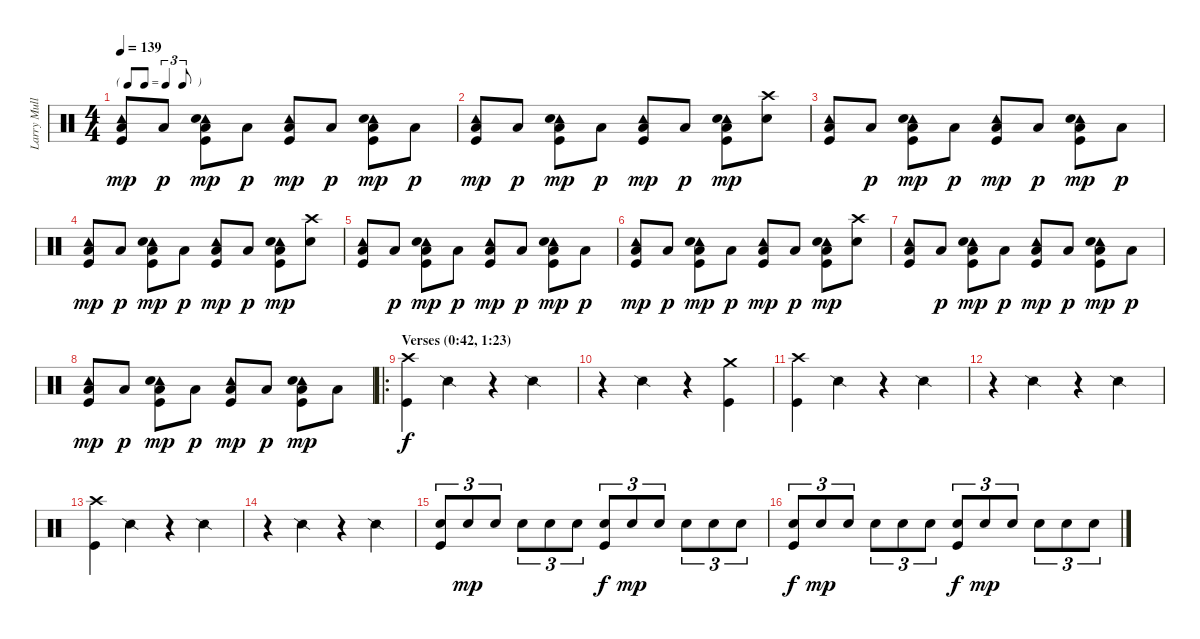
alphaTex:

\track ("Larry Mullen Jr" "Larry Mull") {instrument percussion}
\staff {score}
\articulation defaults
\ts (4 4)
\tf triplet8th
\tempo 139
\clef neutral
\ks c
("Tambourine (hit)" "Low Floor Tom (hit)" "Kick (hit)").8{dy mp} "Low Floor Tom (hit)".8{dy p} ("Tambourine (hit)" "Electric Snare (hit)" "Low Floor Tom (hit)" "Kick (hit)").8{dy mp} "Low Floor Tom (hit)".8{dy p} ("Tambourine (hit)" "Low Floor Tom (hit)" "Kick (hit)").8{dy mp} "Low Floor Tom (hit)".8{dy p} ("Tambourine (hit)" "Electric Snare (hit)" "Low Floor Tom (hit)" "Kick (hit)").8{dy mp} "Low Floor Tom (hit)".8{dy p} |
("Tambourine (hit)" "Low Floor Tom (hit)" "Kick (hit)").8{dy mp} "Low Floor Tom (hit)".8{dy p} ("Tambourine (hit)" "Electric Snare (hit)" "Low Floor Tom (hit)" "Kick (hit)").8{dy mp} "Low Floor Tom (hit)".8{dy p} ("Tambourine (hit)" "Low Floor Tom (hit)" "Kick (hit)").8{dy mp} "Low Floor Tom (hit)".8{dy p} ("Tambourine (hit)" "Electric Snare (hit)" "Low Floor Tom (hit)" "Kick (hit)").8{dy mp} ("Crash high (hit)" "Electric Snare (hit)").8 |
("Tambourine (hit)" "Low Floor Tom (hit)" "Kick (hit)").8 "Low Floor Tom (hit)".8{dy p} ("Tambourine (hit)" "Electric Snare (hit)" "Low Floor Tom (hit)" "Kick (hit)").8{dy mp} "Low Floor Tom (hit)".8{dy p} ("Tambourine (hit)" "Low Floor Tom (hit)" "Kick (hit)").8{dy mp} "Low Floor Tom (hit)".8{dy p} ("Tambourine (hit)" "Electric Snare (hit)" "Low Floor Tom (hit)" "Kick (hit)").8{dy mp} "Low Floor Tom (hit)".8{dy p} |
("Tambourine (hit)" "Low Floor Tom (hit)" "Kick (hit)").8{dy mp} "Low Floor Tom (hit)".8{dy p} ("Tambourine (hit)" "Electric Snare (hit)" "Low Floor Tom (hit)" "Kick (hit)").8{dy mp} "Low Floor Tom (hit)".8{dy p} ("Tambourine (hit)" "Low Floor Tom (hit)" "Kick (hit)").8{dy mp} "Low Floor Tom (hit)".8{dy p} ("Tambourine (hit)" "Electric Snare (hit)" "Low Floor Tom (hit)" "Kick (hit)").8{dy mp} ("Crash high (hit)" "Electric Snare (hit)").8 |
("Tambourine (hit)" "Low Floor Tom (hit)" "Kick (hit)").8 "Low Floor Tom (hit)".8{dy p} ("Tambourine (hit)" "Electric Snare (hit)" "Low Floor Tom (hit)" "Kick (hit)").8{dy mp} "Low Floor Tom (hit)".8{dy p} ("Tambourine (hit)" "Low Floor Tom (hit)" "Kick (hit)").8{dy mp} "Low Floor Tom (hit)".8{dy p} ("Tambourine (hit)" "Electric Snare (hit)" "Low Floor Tom (hit)" "Kick (hit)").8{dy mp} "Low Floor Tom (hit)".8{dy p} |
("Tambourine (hit)" "Low Floor Tom (hit)" "Kick (hit)").8{dy mp} "Low Floor Tom (hit)".8{dy p} ("Tambourine (hit)" "Electric Snare (hit)" "Low Floor Tom (hit)" "Kick (hit)").8{dy mp} "Low Floor Tom (hit)".8{dy p} ("Tambourine (hit)" "Low Floor Tom (hit)" "Kick (hit)").8{dy mp} "Low Floor Tom (hit)".8{dy p} ("Tambourine (hit)" "Electric Snare (hit)" "Low Floor Tom (hit)" "Kick (hit)").8{dy mp} ("Crash high (hit)" "Electric Snare (hit)").8 |
("Tambourine (hit)" "Low Floor Tom (hit)" "Kick (hit)").8 "Low Floor Tom (hit)".8{dy p} ("Tambourine (hit)" "Electric Snare (hit)" "Low Floor Tom (hit)" "Kick (hit)").8{dy mp} "Low Floor Tom (hit)".8{dy p} ("Tambourine (hit)" "Low Floor Tom (hit)" "Kick (hit)").8{dy mp} "Low Floor Tom (hit)".8{dy p} ("Tambourine (hit)" "Electric Snare (hit)" "Low Floor Tom (hit)" "Kick (hit)").8{dy mp} "Low Floor Tom (hit)".8{dy p} |
("Tambourine (hit)" "Low Floor Tom (hit)" "Kick (hit)").8{dy mp} "Low Floor Tom (hit)".8{dy p} ("Tambourine (hit)" "Electric Snare (hit)" "Low Floor Tom (hit)" "Kick (hit)").8{dy mp} "Low Floor Tom (hit)".8{dy p} ("Tambourine (hit)" "Low Floor Tom (hit)" "Kick (hit)").8{dy mp} "Low Floor Tom (hit)".8{dy p} ("Tambourine (hit)" "Electric Snare (hit)" "Low Floor Tom (hit)" "Kick (hit)").8{dy mp} "Low Floor Tom (hit)".8 |
\ro
\section ("" "Verses (0:42, 1:23)")
("Crash high (hit)" "Kick (hit)").4{dy f} "Snare (side stick) 2".4 r.4 "Snare (side stick) 2".4 |
r.4 "Snare (side stick) 2".4 r.4 ("Crash medium (hit)" "Kick (hit)").4 |
("Crash high (hit)" "Kick (hit)").4 "Snare (side stick) 2".4 r.4 "Snare (side stick) 2".4 |
r.4 "Snare (side stick) 2".4 r.4 "Snare (side stick) 2".4 |
("Crash high (hit)" "Kick (hit)").4 "Snare (side stick) 2".4 r.4 "Snare (side stick) 2".4 |
r.4 "Snare (side stick) 2".4 r.4 "Snare (side stick) 2".4 |
("Electric Snare (hit)" "Kick (hit)").8{tu (3 2)} "Electric Snare (hit)".8{tu (3 2) dy mp} "Electric Snare (hit)".8{tu (3 2)} "Electric Snare (hit)".8{tu (3 2)} "Electric Snare (hit)".8{tu (3 2)} "Electric Snare (hit)".8{tu (3 2)} ("Electric Snare (hit)" "Kick (hit)").8{tu (3 2) dy f} "Electric Snare (hit)".8{tu (3 2) dy mp} "Electric Snare (hit)".8{tu (3 2)} "Electric Snare (hit)".8{tu (3 2)} "Electric Snare (hit)".8{tu (3 2)} "Electric Snare (hit)".8{tu (3 2)} |
("Electric Snare (hit)" "Kick (hit)").8{tu (3 2) dy f} "Electric Snare (hit)".8{tu (3 2) dy mp} "Electric Snare (hit)".8{tu (3 2)} "Electric Snare (hit)".8{tu (3 2)} "Electric Snare (hit)".8{tu (3 2)} "Electric Snare (hit)".8{tu (3 2)} ("Electric Snare (hit)" "Kick (hit)").8{tu (3 2) dy f} "Electric Snare (hit)".8{tu (3 2) dy mp} "Electric Snare (hit)".8{tu (3 2)} "Electric Snare (hit)".8{tu (3 2)} "Electric Snare (hit)".8{tu (3 2)} "Electric Snare (hit)".8{tu (3 2)}
